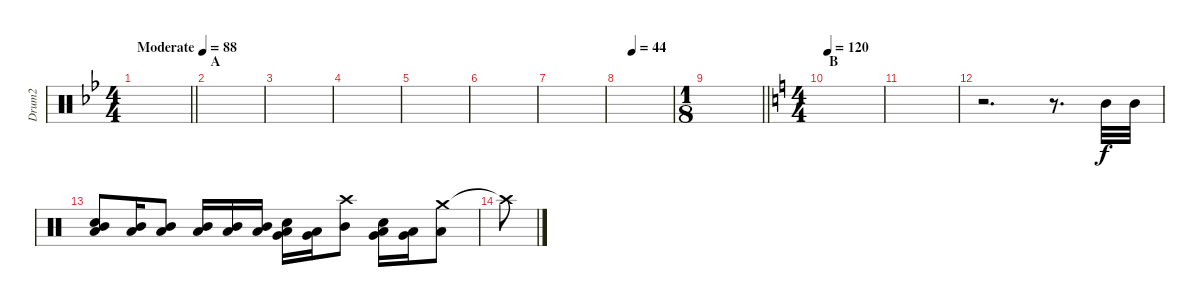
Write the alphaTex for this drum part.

\track ("Drum2" "Drum2") {instrument percussion}
\staff {score}
\articulation defaults
\ts (4 4)
\tempo (88 "Moderate")
\clef neutral
\barLineRight lightlight
\ks bb
|
\section ("" "A")
|
|
|
|
|
|
\tempo (44 0.25)
|
\ts (1 8)
\barLineRight lightlight
|
\ts (4 4)
\section ("" "B")
\tempo 120
\ks c
|
|
r.2{d} r.8{d} "Mid Tom (hit)".32 "Mid Tom (hit)".32 |
("Mid Tom (hit)" "Snare (hit) 2" "Low Tom (hit)").8{dy f} ("Mid Tom (hit)" "Low Tom (hit)").16 ("Low Tom (hit)" "Mid Tom (hit)").8 ("Mid Tom (hit)" "Low Tom (hit)").16 ("Mid Tom (hit)" "Low Tom (hit)").16 ("Mid Tom (hit)" "Low Tom (hit)").16 ("Low Tom (hit)" "Very Low Tom (hit)" "Snare (hit) 2").16 ("Low Tom (hit)" "Very Low Tom (hit)").16 ("Crash high (hit)" "Mid Tom (hit)").8 ("Very Low Tom (hit)" "Low Floor Tom (hit)" "Snare (hit) 2").16 ("Very Low Tom (hit)" "Low Floor Tom (hit)").16 ("Crash medium (hit)" "Low Tom (hit)").8 |
"Crash high (hit)"{t}.8
